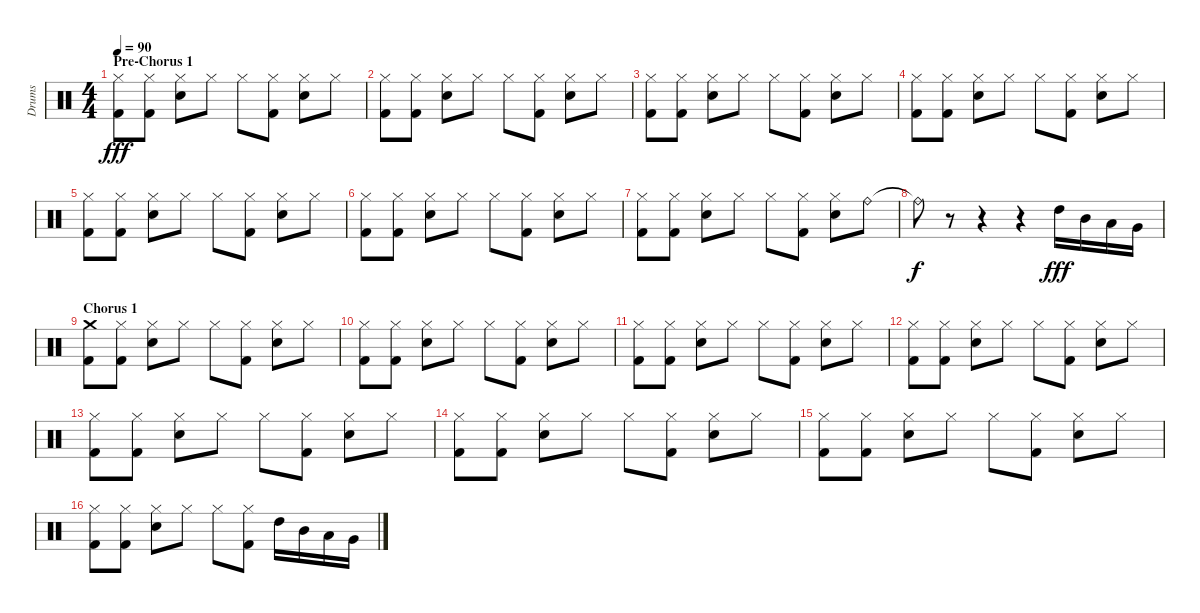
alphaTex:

\track ("Drums" "Drums") {instrument percussion}
\staff {score}
\articulation defaults
\ts (4 4)
\section ("" "Pre-Chorus 1")
\tempo 90
\clef neutral
\ks c
("Hi-Hat (closed)" "Kick (hit) 2").8{dy fff} ("Hi-Hat (closed)" "Kick (hit) 2").8 ("Hi-Hat (closed)" "Electric Snare (hit)").8 "Hi-Hat (closed)".8 "Hi-Hat (closed)".8 ("Hi-Hat (closed)" "Kick (hit) 2").8 ("Hi-Hat (closed)" "Electric Snare (hit)").8 "Hi-Hat (closed)".8 |
("Hi-Hat (closed)" "Kick (hit) 2").8 ("Hi-Hat (closed)" "Kick (hit) 2").8 ("Hi-Hat (closed)" "Electric Snare (hit)").8 "Hi-Hat (closed)".8 "Hi-Hat (closed)".8 ("Hi-Hat (closed)" "Kick (hit) 2").8 ("Hi-Hat (closed)" "Electric Snare (hit)").8 "Hi-Hat (closed)".8 |
("Hi-Hat (closed)" "Kick (hit) 2").8 ("Hi-Hat (closed)" "Kick (hit) 2").8 ("Hi-Hat (closed)" "Electric Snare (hit)").8 "Hi-Hat (closed)".8 "Hi-Hat (closed)".8 ("Hi-Hat (closed)" "Kick (hit) 2").8 ("Hi-Hat (closed)" "Electric Snare (hit)").8 "Hi-Hat (closed)".8 |
("Hi-Hat (closed)" "Kick (hit) 2").8 ("Hi-Hat (closed)" "Kick (hit) 2").8 ("Hi-Hat (closed)" "Electric Snare (hit)").8 "Hi-Hat (closed)".8 "Hi-Hat (closed)".8 ("Hi-Hat (closed)" "Kick (hit) 2").8 ("Hi-Hat (closed)" "Electric Snare (hit)").8 "Hi-Hat (closed)".8 |
("Hi-Hat (closed)" "Kick (hit) 2").8 ("Hi-Hat (closed)" "Kick (hit) 2").8 ("Hi-Hat (closed)" "Electric Snare (hit)").8 "Hi-Hat (closed)".8 "Hi-Hat (closed)".8 ("Hi-Hat (closed)" "Kick (hit) 2").8 ("Hi-Hat (closed)" "Electric Snare (hit)").8 "Hi-Hat (closed)".8 |
("Hi-Hat (closed)" "Kick (hit) 2").8 ("Hi-Hat (closed)" "Kick (hit) 2").8 ("Hi-Hat (closed)" "Electric Snare (hit)").8 "Hi-Hat (closed)".8 "Hi-Hat (closed)".8 ("Hi-Hat (closed)" "Kick (hit) 2").8 ("Hi-Hat (closed)" "Electric Snare (hit)").8 "Hi-Hat (closed)".8 |
("Hi-Hat (closed)" "Kick (hit) 2").8 ("Hi-Hat (closed)" "Kick (hit) 2").8 ("Hi-Hat (closed)" "Electric Snare (hit)").8 "Hi-Hat (closed)".8 "Hi-Hat (closed)".8 ("Hi-Hat (closed)" "Kick (hit) 2").8 ("Hi-Hat (closed)" "Electric Snare (hit)").8 "Ride (bell)".8 |
"Ride (bell)"{t}.8{dy f} r.8 r.4 r.4 "High Tom (hit)".16{dy fff} "Mid Tom (hit)".16 "Low Tom (hit)".16 "Very Low Tom (hit)".16 |
\section ("" "Chorus 1")
("Crash medium (hit)" "Kick (hit) 2").8 ("Hi-Hat (closed)" "Kick (hit) 2").8 ("Hi-Hat (closed)" "Electric Snare (hit)").8 "Hi-Hat (closed)".8 "Hi-Hat (closed)".8 ("Hi-Hat (closed)" "Kick (hit) 2").8 ("Hi-Hat (closed)" "Electric Snare (hit)").8 "Hi-Hat (closed)".8 |
("Hi-Hat (closed)" "Kick (hit) 2").8 ("Hi-Hat (closed)" "Kick (hit) 2").8 ("Hi-Hat (closed)" "Electric Snare (hit)").8 "Hi-Hat (closed)".8 "Hi-Hat (closed)".8 ("Hi-Hat (closed)" "Kick (hit) 2").8 ("Hi-Hat (closed)" "Electric Snare (hit)").8 "Hi-Hat (closed)".8 |
("Hi-Hat (closed)" "Kick (hit) 2").8 ("Hi-Hat (closed)" "Kick (hit) 2").8 ("Hi-Hat (closed)" "Electric Snare (hit)").8 "Hi-Hat (closed)".8 "Hi-Hat (closed)".8 ("Hi-Hat (closed)" "Kick (hit) 2").8 ("Hi-Hat (closed)" "Electric Snare (hit)").8 "Hi-Hat (closed)".8 |
("Hi-Hat (closed)" "Kick (hit) 2").8 ("Hi-Hat (closed)" "Kick (hit) 2").8 ("Hi-Hat (closed)" "Electric Snare (hit)").8 "Hi-Hat (closed)".8 "Hi-Hat (closed)".8 ("Hi-Hat (closed)" "Kick (hit) 2").8 ("Hi-Hat (closed)" "Electric Snare (hit)").8 "Hi-Hat (closed)".8 |
("Hi-Hat (closed)" "Kick (hit) 2").8 ("Hi-Hat (closed)" "Kick (hit) 2").8 ("Hi-Hat (closed)" "Electric Snare (hit)").8 "Hi-Hat (closed)".8 "Hi-Hat (closed)".8 ("Hi-Hat (closed)" "Kick (hit) 2").8 ("Hi-Hat (closed)" "Electric Snare (hit)").8 "Hi-Hat (closed)".8 |
("Hi-Hat (closed)" "Kick (hit) 2").8 ("Hi-Hat (closed)" "Kick (hit) 2").8 ("Hi-Hat (closed)" "Electric Snare (hit)").8 "Hi-Hat (closed)".8 "Hi-Hat (closed)".8 ("Hi-Hat (closed)" "Kick (hit) 2").8 ("Hi-Hat (closed)" "Electric Snare (hit)").8 "Hi-Hat (closed)".8 |
("Hi-Hat (closed)" "Kick (hit) 2").8 ("Hi-Hat (closed)" "Kick (hit) 2").8 ("Hi-Hat (closed)" "Electric Snare (hit)").8 "Hi-Hat (closed)".8 "Hi-Hat (closed)".8 ("Hi-Hat (closed)" "Kick (hit) 2").8 ("Hi-Hat (closed)" "Electric Snare (hit)").8 "Hi-Hat (closed)".8 |
("Hi-Hat (closed)" "Kick (hit) 2").8 ("Hi-Hat (closed)" "Kick (hit) 2").8 ("Hi-Hat (closed)" "Electric Snare (hit)").8 "Hi-Hat (closed)".8 "Hi-Hat (closed)".8 ("Hi-Hat (closed)" "Kick (hit) 2").8 "High Tom (hit)".16 "Mid Tom (hit)".16 "Low Tom (hit)".16 "Very Low Tom (hit)".16
